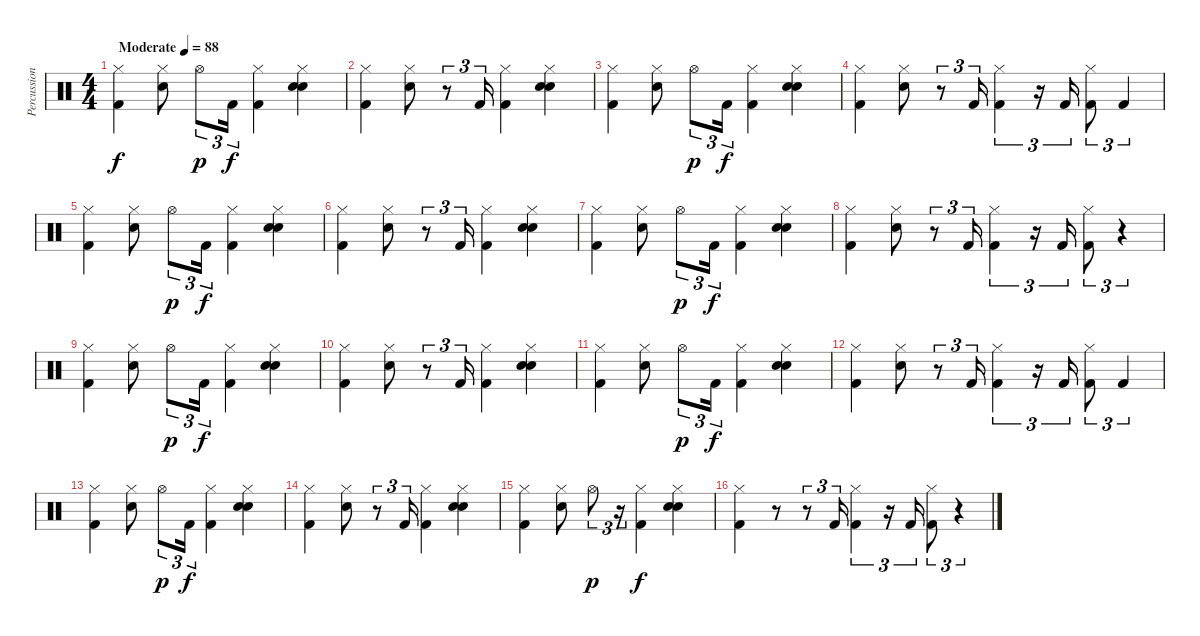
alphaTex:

\track ("Percussion" "Percussion") {instrument percussion}
\staff {score}
\articulation defaults
\ts (4 4)
\tempo (88 "Moderate")
\clef neutral
\ks c
("Hi-Hat (closed)" "Kick (hit) 2").4{dy f} ("Hi-Hat (closed)" "Electric Snare (hit)").8 "Hi-Hat (open)".8{tu (3 2) dy p} "Kick (hit) 2".16{tu (3 2) dy f} ("Hi-Hat (closed)" "Kick (hit) 2").4 ("Hi-Hat (closed)" "Electric Snare (hit)" "Hand Clap (hit)").4 |
("Hi-Hat (closed)" "Kick (hit) 2").4 ("Hi-Hat (closed)" "Electric Snare (hit)").8 r.8{tu (3 2)} "Kick (hit) 2".16{tu (3 2)} ("Hi-Hat (closed)" "Kick (hit) 2").4 ("Hi-Hat (closed)" "Electric Snare (hit)" "Hand Clap (hit)").4 |
("Hi-Hat (closed)" "Kick (hit) 2").4 ("Hi-Hat (closed)" "Electric Snare (hit)").8 "Hi-Hat (open)".8{tu (3 2) dy p} "Kick (hit) 2".16{tu (3 2) dy f} ("Hi-Hat (closed)" "Kick (hit) 2").4 ("Hi-Hat (closed)" "Electric Snare (hit)" "Hand Clap (hit)").4 |
("Hi-Hat (closed)" "Kick (hit) 2").4 ("Hi-Hat (closed)" "Electric Snare (hit)").8 r.8{tu (3 2)} "Kick (hit) 2".16{tu (3 2)} ("Hi-Hat (closed)" "Kick (hit) 2").4{tu (3 2)} r.16{tu (3 2)} "Kick (hit) 2".16{tu (3 2)} ("Hi-Hat (closed)" "Kick (hit) 2").8{tu (3 2)} "Kick (hit) 2".4{tu (3 2)} |
("Hi-Hat (closed)" "Kick (hit) 2").4 ("Hi-Hat (closed)" "Electric Snare (hit)").8 "Hi-Hat (open)".8{tu (3 2) dy p} "Kick (hit) 2".16{tu (3 2) dy f} ("Hi-Hat (closed)" "Kick (hit) 2").4 ("Hi-Hat (closed)" "Electric Snare (hit)" "Hand Clap (hit)").4 |
("Hi-Hat (closed)" "Kick (hit) 2").4 ("Hi-Hat (closed)" "Electric Snare (hit)").8 r.8{tu (3 2)} "Kick (hit) 2".16{tu (3 2)} ("Hi-Hat (closed)" "Kick (hit) 2").4 ("Hi-Hat (closed)" "Electric Snare (hit)" "Hand Clap (hit)").4 |
("Hi-Hat (closed)" "Kick (hit) 2").4 ("Hi-Hat (closed)" "Electric Snare (hit)").8 "Hi-Hat (open)".8{tu (3 2) dy p} "Kick (hit) 2".16{tu (3 2) dy f} ("Hi-Hat (closed)" "Kick (hit) 2").4 ("Hi-Hat (closed)" "Electric Snare (hit)" "Hand Clap (hit)").4 |
("Hi-Hat (closed)" "Kick (hit) 2").4 ("Hi-Hat (closed)" "Electric Snare (hit)").8 r.8{tu (3 2)} "Kick (hit) 2".16{tu (3 2)} ("Hi-Hat (closed)" "Kick (hit) 2").4{tu (3 2)} r.16{tu (3 2)} "Kick (hit) 2".16{tu (3 2)} ("Hi-Hat (closed)" "Kick (hit) 2").8{tu (3 2)} r.4{tu (3 2)} |
("Hi-Hat (closed)" "Kick (hit) 2").4 ("Hi-Hat (closed)" "Electric Snare (hit)").8 "Hi-Hat (open)".8{tu (3 2) dy p} "Kick (hit) 2".16{tu (3 2) dy f} ("Hi-Hat (closed)" "Kick (hit) 2").4 ("Hi-Hat (closed)" "Electric Snare (hit)" "Hand Clap (hit)").4 |
("Hi-Hat (closed)" "Kick (hit) 2").4 ("Hi-Hat (closed)" "Electric Snare (hit)").8 r.8{tu (3 2)} "Kick (hit) 2".16{tu (3 2)} ("Hi-Hat (closed)" "Kick (hit) 2").4 ("Hi-Hat (closed)" "Electric Snare (hit)" "Hand Clap (hit)").4 |
("Hi-Hat (closed)" "Kick (hit) 2").4 ("Hi-Hat (closed)" "Electric Snare (hit)").8 "Hi-Hat (open)".8{tu (3 2) dy p} "Kick (hit) 2".16{tu (3 2) dy f} ("Hi-Hat (closed)" "Kick (hit) 2").4 ("Hi-Hat (closed)" "Electric Snare (hit)" "Hand Clap (hit)").4 |
("Hi-Hat (closed)" "Kick (hit) 2").4 ("Hi-Hat (closed)" "Electric Snare (hit)").8 r.8{tu (3 2)} "Kick (hit) 2".16{tu (3 2)} ("Hi-Hat (closed)" "Kick (hit) 2").4{tu (3 2)} r.16{tu (3 2)} "Kick (hit) 2".16{tu (3 2)} ("Hi-Hat (closed)" "Kick (hit) 2").8{tu (3 2)} "Kick (hit) 2".4{tu (3 2)} |
("Hi-Hat (closed)" "Kick (hit) 2").4 ("Hi-Hat (closed)" "Electric Snare (hit)").8 "Hi-Hat (open)".8{tu (3 2) dy p} "Kick (hit) 2".16{tu (3 2) dy f} ("Hi-Hat (closed)" "Kick (hit) 2").4 ("Hi-Hat (closed)" "Electric Snare (hit)" "Hand Clap (hit)").4 |
("Hi-Hat (closed)" "Kick (hit) 2").4 ("Hi-Hat (closed)" "Electric Snare (hit)").8 r.8{tu (3 2)} "Kick (hit) 2".16{tu (3 2)} ("Hi-Hat (closed)" "Kick (hit) 2").4 ("Hi-Hat (closed)" "Electric Snare (hit)" "Hand Clap (hit)").4 |
("Hi-Hat (closed)" "Kick (hit) 2").4 ("Hi-Hat (closed)" "Electric Snare (hit)").8 "Hi-Hat (open)".8{tu (3 2) dy p} r.16{tu (3 2)} ("Hi-Hat (closed)" "Kick (hit) 2").4{dy f} ("Hi-Hat (closed)" "Electric Snare (hit)" "Hand Clap (hit)").4 |
("Hi-Hat (closed)" "Kick (hit) 2").4 r.8 r.8{tu (3 2)} "Kick (hit) 2".16{tu (3 2)} ("Hi-Hat (closed)" "Kick (hit) 2").4{tu (3 2)} r.16{tu (3 2)} "Kick (hit) 2".16{tu (3 2)} ("Hi-Hat (closed)" "Kick (hit) 2").8{tu (3 2)} r.4{tu (3 2)}
